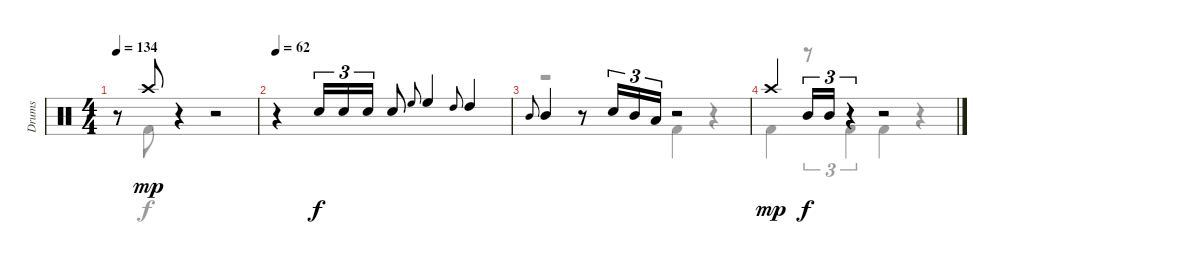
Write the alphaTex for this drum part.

\track ("Drums" "Drums") {instrument percussion}
\staff {score}
\articulation defaults
\voice
\ts (4 4)
\tempo 134
\clef neutral
\ks aminor
r.8{dy mp} "Crash high (hit)".8 r.4 r.2 |
\tempo 62
r.4 "Electric Snare (hit)".16{tu (3 2) dy f beam Up} "Electric Snare (hit)".16{tu (3 2) beam Up} "Electric Snare (hit)".16{tu (3 2) beam Up} "Electric Snare (hit)".8{beam Up} "High Floor Tom (hit)".8{gr onbeat} "High Floor Tom (hit)".4{beam Up} "High Tom (hit)".8{gr onbeat} "High Tom (hit)".4{beam Up} |
"Mid Tom (hit)".8{gr onbeat} "Mid Tom (hit)".4 r.8 "Electric Snare (hit)".16{tu (3 2)} "Mid Tom (hit)".16{tu (3 2)} "Low Tom (hit)".16{tu (3 2)} r.2 |
"Crash high (hit)".4{dy mp} "Mid Tom (hit)".16{tu (3 2) dy f} "Mid Tom (hit)".16{tu (3 2)} r.4{tu (3 2)} r.2
\voice
\clef neutral
\ottava regular
\simile none
\ks aminor
r.8{dy f} "Kick (hit) 2".8 r.4 r.2 |
|
r.2 "Kick (hit) 2".4 r.4 |
"Kick (hit) 2".4 r.8{tu (3 2)} "Kick (hit) 2".4{tu (3 2)} "Kick (hit) 2".4 r.4
